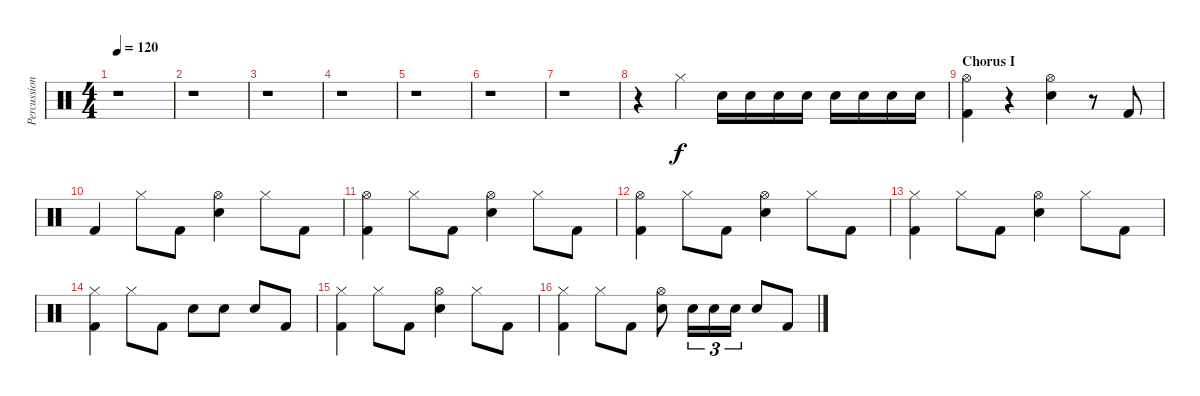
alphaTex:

\track ("Percussion" "Percussion") {instrument percussion}
\staff {score}
\articulation defaults
\ts (4 4)
\tempo 120
\clef neutral
\ks c
r.1{dy f} |
r.1 |
r.1 |
r.1 |
r.1 |
r.1 |
r.1 |
r.4 "Hi-Hat (closed)".4 "Snare (hit) 2".16 "Snare (hit) 2".16 "Snare (hit) 2".16 "Snare (hit) 2".16 "Snare (hit) 2".16 "Snare (hit) 2".16 "Snare (hit) 2".16 "Snare (hit) 2".16 |
\section ("" "Chorus I")
("Hi-Hat (open)" "Kick (hit) 2").4 r.4 ("Hi-Hat (open)" "Snare (hit) 2").4 r.8 "Kick (hit) 2".8 |
"Kick (hit) 2".4 "Hi-Hat (closed)".8 "Kick (hit) 2".8 ("Hi-Hat (open)" "Snare (hit) 2").4 "Hi-Hat (closed)".8 "Kick (hit) 2".8 |
("Hi-Hat (open)" "Kick (hit) 2").4 "Hi-Hat (closed)".8 "Kick (hit) 2".8 ("Hi-Hat (open)" "Snare (hit) 2").4 "Hi-Hat (closed)".8 "Kick (hit) 2".8 |
("Hi-Hat (open)" "Kick (hit) 2").4 "Hi-Hat (closed)".8 "Kick (hit) 2".8 ("Hi-Hat (open)" "Snare (hit) 2").4 "Hi-Hat (closed)".8 "Kick (hit) 2".8 |
("Hi-Hat (closed)" "Kick (hit) 2").4 "Hi-Hat (closed)".8 "Kick (hit) 2".8 ("Hi-Hat (open)" "Snare (hit) 2").4 "Hi-Hat (closed)".8 "Kick (hit) 2".8 |
("Hi-Hat (closed)" "Kick (hit) 2").4 "Hi-Hat (closed)".8 "Kick (hit) 2".8 "Snare (hit) 2".8 "Snare (hit) 2".8 "Snare (hit) 2".8 "Kick (hit) 2".8 |
("Hi-Hat (closed)" "Kick (hit) 2").4 "Hi-Hat (closed)".8 "Kick (hit) 2".8 ("Hi-Hat (open)" "Snare (hit) 2").4 "Hi-Hat (closed)".8 "Kick (hit) 2".8 |
("Hi-Hat (closed)" "Kick (hit) 2").4 "Hi-Hat (closed)".8 "Kick (hit) 2".8 ("Hi-Hat (open)" "Snare (hit) 2").8 "Snare (hit) 2".16{tu (3 2)} "Snare (hit) 2".16{tu (3 2)} "Snare (hit) 2".16{tu (3 2)} "Snare (hit) 2".8 "Kick (hit) 2".8
